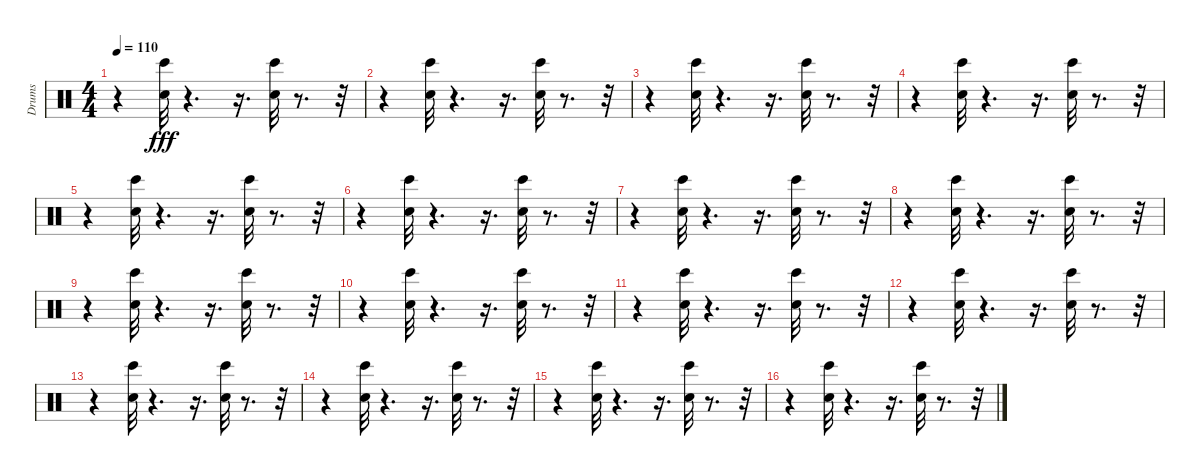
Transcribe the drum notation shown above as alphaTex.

\track ("Drums" "Drums") {instrument percussion}
\staff {score}
\articulation defaults
\ts (4 4)
\tempo 110
\clef neutral
\ks c
r.4{dy fff} ("Snare (hit) 2" "Bongo High (hit)").32 r.4{d} r.16{d} ("Snare (hit) 2" "Bongo High (hit)").32 r.8{d} r.32 |
r.4 ("Snare (hit) 2" "Bongo High (hit)").32 r.4{d} r.16{d} ("Snare (hit) 2" "Bongo High (hit)").32 r.8{d} r.32 |
r.4 ("Snare (hit) 2" "Bongo High (hit)").32 r.4{d} r.16{d} ("Snare (hit) 2" "Bongo High (hit)").32 r.8{d} r.32 |
r.4 ("Snare (hit) 2" "Bongo High (hit)").32 r.4{d} r.16{d} ("Snare (hit) 2" "Bongo High (hit)").32 r.8{d} r.32 |
r.4 ("Snare (hit) 2" "Bongo High (hit)").32 r.4{d} r.16{d} ("Snare (hit) 2" "Bongo High (hit)").32 r.8{d} r.32 |
r.4 ("Snare (hit) 2" "Bongo High (hit)").32 r.4{d} r.16{d} ("Snare (hit) 2" "Bongo High (hit)").32 r.8{d} r.32 |
r.4 ("Snare (hit) 2" "Bongo High (hit)").32 r.4{d} r.16{d} ("Snare (hit) 2" "Bongo High (hit)").32 r.8{d} r.32 |
r.4 ("Snare (hit) 2" "Bongo High (hit)").32 r.4{d} r.16{d} ("Snare (hit) 2" "Bongo High (hit)").32 r.8{d} r.32 |
r.4 ("Snare (hit) 2" "Bongo High (hit)").32 r.4{d} r.16{d} ("Snare (hit) 2" "Bongo High (hit)").32 r.8{d} r.32 |
r.4 ("Snare (hit) 2" "Bongo High (hit)").32 r.4{d} r.16{d} ("Snare (hit) 2" "Bongo High (hit)").32 r.8{d} r.32 |
r.4 ("Snare (hit) 2" "Bongo High (hit)").32 r.4{d} r.16{d} ("Snare (hit) 2" "Bongo High (hit)").32 r.8{d} r.32 |
r.4 ("Snare (hit) 2" "Bongo High (hit)").32 r.4{d} r.16{d} ("Snare (hit) 2" "Bongo High (hit)").32 r.8{d} r.32 |
r.4 ("Snare (hit) 2" "Bongo High (hit)").32 r.4{d} r.16{d} ("Snare (hit) 2" "Bongo High (hit)").32 r.8{d} r.32 |
r.4 ("Snare (hit) 2" "Bongo High (hit)").32 r.4{d} r.16{d} ("Snare (hit) 2" "Bongo High (hit)").32 r.8{d} r.32 |
r.4 ("Snare (hit) 2" "Bongo High (hit)").32 r.4{d} r.16{d} ("Snare (hit) 2" "Bongo High (hit)").32 r.8{d} r.32 |
r.4 ("Snare (hit) 2" "Bongo High (hit)").32 r.4{d} r.16{d} ("Snare (hit) 2" "Bongo High (hit)").32 r.8{d} r.32
